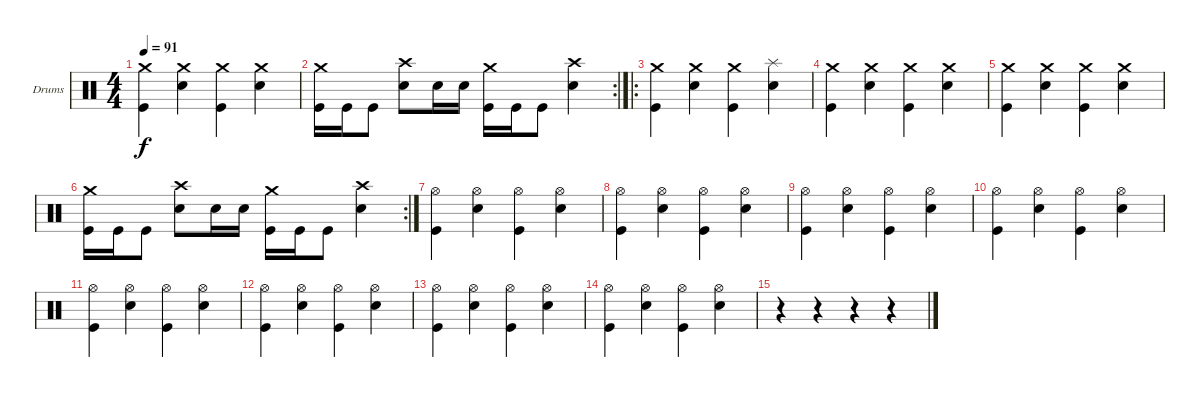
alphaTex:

\defaultSystemsLayout 4
\bracketExtendMode groupsimilarinstruments
\firstSystemTrackNameOrientation horizontal
\otherSystemsTrackNameOrientation horizontal
\track ("Drumkit" "Drums") {instrument percussion}
\staff {score}
\articulation defaults
\ts (4 4)
\tempo 91
\clef neutral
\scale
0.301587
\ks c
("Kick (hit)" "Crash medium (hit)").4{dy f} ("Snare (hit) 2" "Crash medium (hit)").4 ("Kick (hit)" "Crash medium (hit)").4 ("Snare (hit) 2" "Crash medium (hit)").4 |
\rc 2
\scale
0.333333 ("Kick (hit)" "Crash medium (hit)").16 "Kick (hit)".16 "Kick (hit)".8 ("Snare (hit) 2" "Crash high (hit)").8 "Snare (hit) 2".16 "Snare (hit) 2".16 ("Kick (hit)" "Crash medium (hit)").16 "Kick (hit)".16 "Kick (hit)".8 ("Snare (hit) 2" "Crash high (hit)").4 |
\ro
\scale
0.365079 ("Kick (hit)" "Crash medium (hit)").4 ("Snare (hit) 2" "Crash medium (hit)").4 ("Kick (hit)" "Crash medium (hit)").4 ("Snare (hit) 2" "Splash (hit)").4 |
\scale
0.322034 ("Kick (hit)" "Crash medium (hit)").4 ("Snare (hit) 2" "Crash medium (hit)").4 ("Kick (hit)" "Crash medium (hit)").4 ("Snare (hit) 2" "Crash medium (hit)").4 |
\scale
0.322034 ("Kick (hit)" "Crash medium (hit)").4 ("Snare (hit) 2" "Crash medium (hit)").4 ("Kick (hit)" "Crash medium (hit)").4 ("Snare (hit) 2" "Crash medium (hit)").4 |
\rc 2
\scale
0.355932 ("Kick (hit)" "Crash medium (hit)").16 "Kick (hit)".16 "Kick (hit)".8 ("Snare (hit) 2" "Crash high (hit)").8 "Snare (hit) 2".16 "Snare (hit) 2".16 ("Kick (hit)" "Crash medium (hit)").16 "Kick (hit)".16 "Kick (hit)".8 ("Snare (hit) 2" "Crash high (hit)").4 |
\scale
0.333333 ("Kick (hit)" "Hi-Hat (open)").4 ("Snare (hit) 2" "Hi-Hat (open)").4 ("Kick (hit)" "Hi-Hat (open)").4 ("Snare (hit) 2" "Hi-Hat (open)").4 |
\scale
0.333333 ("Kick (hit)" "Hi-Hat (open)").4 ("Snare (hit) 2" "Hi-Hat (open)").4 ("Kick (hit)" "Hi-Hat (open)").4 ("Snare (hit) 2" "Hi-Hat (open)").4 |
\scale
0.333333 ("Kick (hit)" "Hi-Hat (open)").4 ("Snare (hit) 2" "Hi-Hat (open)").4 ("Kick (hit)" "Hi-Hat (open)").4 ("Snare (hit) 2" "Hi-Hat (open)").4 |
\scale
0.333333 ("Kick (hit)" "Hi-Hat (open)").4 ("Snare (hit) 2" "Hi-Hat (open)").4 ("Kick (hit)" "Hi-Hat (open)").4 ("Snare (hit) 2" "Hi-Hat (open)").4 |
\scale
0.333333 ("Kick (hit)" "Hi-Hat (open)").4 ("Snare (hit) 2" "Hi-Hat (open)").4 ("Kick (hit)" "Hi-Hat (open)").4 ("Snare (hit) 2" "Hi-Hat (open)").4 |
\scale
0.333333 ("Kick (hit)" "Hi-Hat (open)").4 ("Snare (hit) 2" "Hi-Hat (open)").4 ("Kick (hit)" "Hi-Hat (open)").4 ("Snare (hit) 2" "Hi-Hat (open)").4 |
\scale
0.333333 ("Kick (hit)" "Hi-Hat (open)").4 ("Snare (hit) 2" "Hi-Hat (open)").4 ("Kick (hit)" "Hi-Hat (open)").4 ("Snare (hit) 2" "Hi-Hat (open)").4 |
\scale
0.333333 ("Kick (hit)" "Hi-Hat (open)").4 ("Snare (hit) 2" "Hi-Hat (open)").4 ("Kick (hit)" "Hi-Hat (open)").4 ("Snare (hit) 2" "Hi-Hat (open)").4 |
\scale
0.333333 r.4 r.4 r.4 r.4
